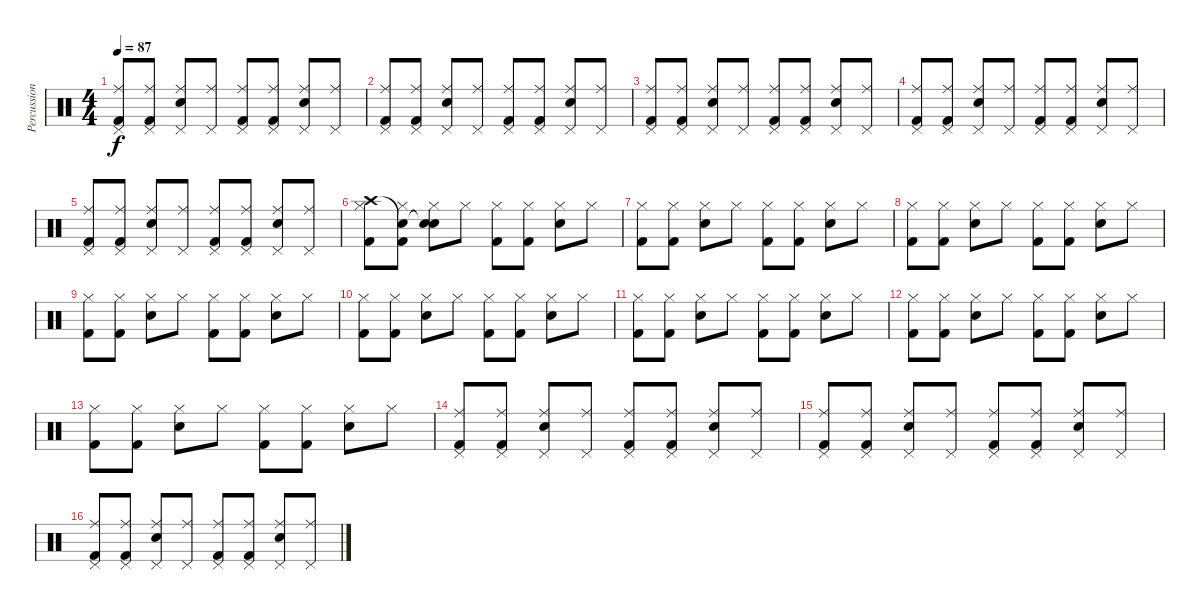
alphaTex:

\track ("Percussion" "Percussion") {instrument percussion}
\staff {score}
\articulation defaults
\ts (4 4)
\tempo 87
\clef neutral
\ks c
("Pedal Hi-Hat (hit)" "Ride (middle)" "Kick (hit) 2").8{dy f} ("Pedal Hi-Hat (hit)" "Ride (middle)" "Kick (hit) 2").8 ("Pedal Hi-Hat (hit)" "Ride (middle)" "Electric Snare (hit)").8 ("Pedal Hi-Hat (hit)" "Ride (middle)").8 ("Pedal Hi-Hat (hit)" "Ride (middle)" "Kick (hit) 2").8 ("Pedal Hi-Hat (hit)" "Ride (middle)" "Kick (hit) 2").8 ("Pedal Hi-Hat (hit)" "Ride (middle)" "Electric Snare (hit)").8 ("Pedal Hi-Hat (hit)" "Ride (middle)").8 |
("Pedal Hi-Hat (hit)" "Ride (middle)" "Kick (hit) 2").8 ("Pedal Hi-Hat (hit)" "Ride (middle)" "Kick (hit) 2").8 ("Pedal Hi-Hat (hit)" "Ride (middle)" "Electric Snare (hit)").8 ("Pedal Hi-Hat (hit)" "Ride (middle)").8 ("Pedal Hi-Hat (hit)" "Ride (middle)" "Kick (hit) 2").8 ("Pedal Hi-Hat (hit)" "Ride (middle)" "Kick (hit) 2").8 ("Pedal Hi-Hat (hit)" "Ride (middle)" "Electric Snare (hit)").8 ("Pedal Hi-Hat (hit)" "Ride (middle)").8 |
("Pedal Hi-Hat (hit)" "Ride (middle)" "Kick (hit) 2").8 ("Pedal Hi-Hat (hit)" "Ride (middle)" "Kick (hit) 2").8 ("Pedal Hi-Hat (hit)" "Ride (middle)" "Electric Snare (hit)").8 ("Pedal Hi-Hat (hit)" "Ride (middle)").8 ("Pedal Hi-Hat (hit)" "Ride (middle)" "Kick (hit) 2").8 ("Pedal Hi-Hat (hit)" "Ride (middle)" "Kick (hit) 2").8 ("Pedal Hi-Hat (hit)" "Ride (middle)" "Electric Snare (hit)").8 ("Pedal Hi-Hat (hit)" "Ride (middle)").8 |
("Pedal Hi-Hat (hit)" "Ride (middle)" "Kick (hit) 2").8 ("Pedal Hi-Hat (hit)" "Ride (middle)" "Kick (hit) 2").8 ("Pedal Hi-Hat (hit)" "Ride (middle)" "Electric Snare (hit)").8 ("Pedal Hi-Hat (hit)" "Ride (middle)").8 ("Pedal Hi-Hat (hit)" "Ride (middle)" "Kick (hit) 2").8 ("Pedal Hi-Hat (hit)" "Ride (middle)" "Kick (hit) 2").8 ("Pedal Hi-Hat (hit)" "Ride (middle)" "Electric Snare (hit)").8 ("Pedal Hi-Hat (hit)" "Ride (middle)").8 |
("Pedal Hi-Hat (hit)" "Ride (middle)" "Kick (hit) 2").8 ("Pedal Hi-Hat (hit)" "Ride (middle)" "Kick (hit) 2").8 ("Pedal Hi-Hat (hit)" "Ride (middle)" "Electric Snare (hit)").8 ("Pedal Hi-Hat (hit)" "Ride (middle)").8 ("Pedal Hi-Hat (hit)" "Ride (middle)" "Kick (hit) 2").8 ("Pedal Hi-Hat (hit)" "Ride (middle)" "Kick (hit) 2").8 ("Pedal Hi-Hat (hit)" "Ride (middle)" "Electric Snare (hit)").8 ("Pedal Hi-Hat (hit)" "Ride (middle)").8 |
("Hi-Hat (closed)" "Crash high (hit)" "Kick (hit) 2").8 ("Hi-Hat (closed)" "Snare (hit)"{t} "Kick (hit) 2").8 ("Hi-Hat (closed)" "Snare (hit)"{t} "Electric Snare (hit)").8 "Hi-Hat (closed)".8 ("Hi-Hat (closed)" "Kick (hit) 2").8 ("Hi-Hat (closed)" "Kick (hit) 2").8 ("Hi-Hat (closed)" "Electric Snare (hit)").8 "Hi-Hat (closed)".8 |
("Hi-Hat (closed)" "Kick (hit) 2").8 ("Hi-Hat (closed)" "Kick (hit) 2").8 ("Hi-Hat (closed)" "Electric Snare (hit)").8 "Hi-Hat (closed)".8 ("Hi-Hat (closed)" "Kick (hit) 2").8 ("Hi-Hat (closed)" "Kick (hit) 2").8 ("Hi-Hat (closed)" "Electric Snare (hit)").8 "Hi-Hat (closed)".8 |
("Hi-Hat (closed)" "Kick (hit) 2").8 ("Hi-Hat (closed)" "Kick (hit) 2").8 ("Hi-Hat (closed)" "Electric Snare (hit)").8 "Hi-Hat (closed)".8 ("Hi-Hat (closed)" "Kick (hit) 2").8 ("Hi-Hat (closed)" "Kick (hit) 2").8 ("Hi-Hat (closed)" "Electric Snare (hit)").8 "Hi-Hat (closed)".8 |
("Hi-Hat (closed)" "Kick (hit) 2").8 ("Hi-Hat (closed)" "Kick (hit) 2").8 ("Hi-Hat (closed)" "Electric Snare (hit)").8 "Hi-Hat (closed)".8 ("Hi-Hat (closed)" "Kick (hit) 2").8 ("Hi-Hat (closed)" "Kick (hit) 2").8 ("Hi-Hat (closed)" "Electric Snare (hit)").8 "Hi-Hat (closed)".8 |
("Hi-Hat (closed)" "Kick (hit) 2").8 ("Hi-Hat (closed)" "Kick (hit) 2").8 ("Hi-Hat (closed)" "Electric Snare (hit)").8 "Hi-Hat (closed)".8 ("Hi-Hat (closed)" "Kick (hit) 2").8 ("Hi-Hat (closed)" "Kick (hit) 2").8 ("Hi-Hat (closed)" "Electric Snare (hit)").8 "Hi-Hat (closed)".8 |
("Hi-Hat (closed)" "Kick (hit) 2").8 ("Hi-Hat (closed)" "Kick (hit) 2").8 ("Hi-Hat (closed)" "Electric Snare (hit)").8 "Hi-Hat (closed)".8 ("Hi-Hat (closed)" "Kick (hit) 2").8 ("Hi-Hat (closed)" "Kick (hit) 2").8 ("Hi-Hat (closed)" "Electric Snare (hit)").8 "Hi-Hat (closed)".8 |
("Hi-Hat (closed)" "Kick (hit) 2").8 ("Hi-Hat (closed)" "Kick (hit) 2").8 ("Hi-Hat (closed)" "Electric Snare (hit)").8 "Hi-Hat (closed)".8 ("Hi-Hat (closed)" "Kick (hit) 2").8 ("Hi-Hat (closed)" "Kick (hit) 2").8 ("Hi-Hat (closed)" "Electric Snare (hit)").8 "Hi-Hat (closed)".8 |
("Hi-Hat (closed)" "Kick (hit) 2").8 ("Hi-Hat (closed)" "Kick (hit) 2").8 ("Hi-Hat (closed)" "Electric Snare (hit)").8 "Hi-Hat (closed)".8 ("Hi-Hat (closed)" "Kick (hit) 2").8 ("Hi-Hat (closed)" "Kick (hit) 2").8 ("Hi-Hat (closed)" "Electric Snare (hit)").8 "Hi-Hat (closed)".8 |
("Pedal Hi-Hat (hit)" "Ride (middle)" "Kick (hit) 2").8 ("Pedal Hi-Hat (hit)" "Ride (middle)" "Kick (hit) 2").8 ("Pedal Hi-Hat (hit)" "Ride (middle)" "Electric Snare (hit)").8 ("Pedal Hi-Hat (hit)" "Ride (middle)").8 ("Pedal Hi-Hat (hit)" "Ride (middle)" "Kick (hit) 2").8 ("Pedal Hi-Hat (hit)" "Ride (middle)" "Kick (hit) 2").8 ("Pedal Hi-Hat (hit)" "Ride (middle)" "Electric Snare (hit)").8 ("Pedal Hi-Hat (hit)" "Ride (middle)").8 |
("Pedal Hi-Hat (hit)" "Ride (middle)" "Kick (hit) 2").8 ("Pedal Hi-Hat (hit)" "Ride (middle)" "Kick (hit) 2").8 ("Pedal Hi-Hat (hit)" "Ride (middle)" "Electric Snare (hit)").8 ("Pedal Hi-Hat (hit)" "Ride (middle)").8 ("Pedal Hi-Hat (hit)" "Ride (middle)" "Kick (hit) 2").8 ("Pedal Hi-Hat (hit)" "Ride (middle)" "Kick (hit) 2").8 ("Pedal Hi-Hat (hit)" "Ride (middle)" "Electric Snare (hit)").8 ("Pedal Hi-Hat (hit)" "Ride (middle)").8 |
("Pedal Hi-Hat (hit)" "Ride (middle)" "Kick (hit) 2").8 ("Pedal Hi-Hat (hit)" "Ride (middle)" "Kick (hit) 2").8 ("Pedal Hi-Hat (hit)" "Ride (middle)" "Electric Snare (hit)").8 ("Pedal Hi-Hat (hit)" "Ride (middle)").8 ("Pedal Hi-Hat (hit)" "Ride (middle)" "Kick (hit) 2").8 ("Pedal Hi-Hat (hit)" "Ride (middle)" "Kick (hit) 2").8 ("Pedal Hi-Hat (hit)" "Ride (middle)" "Electric Snare (hit)").8 ("Pedal Hi-Hat (hit)" "Ride (middle)").8
